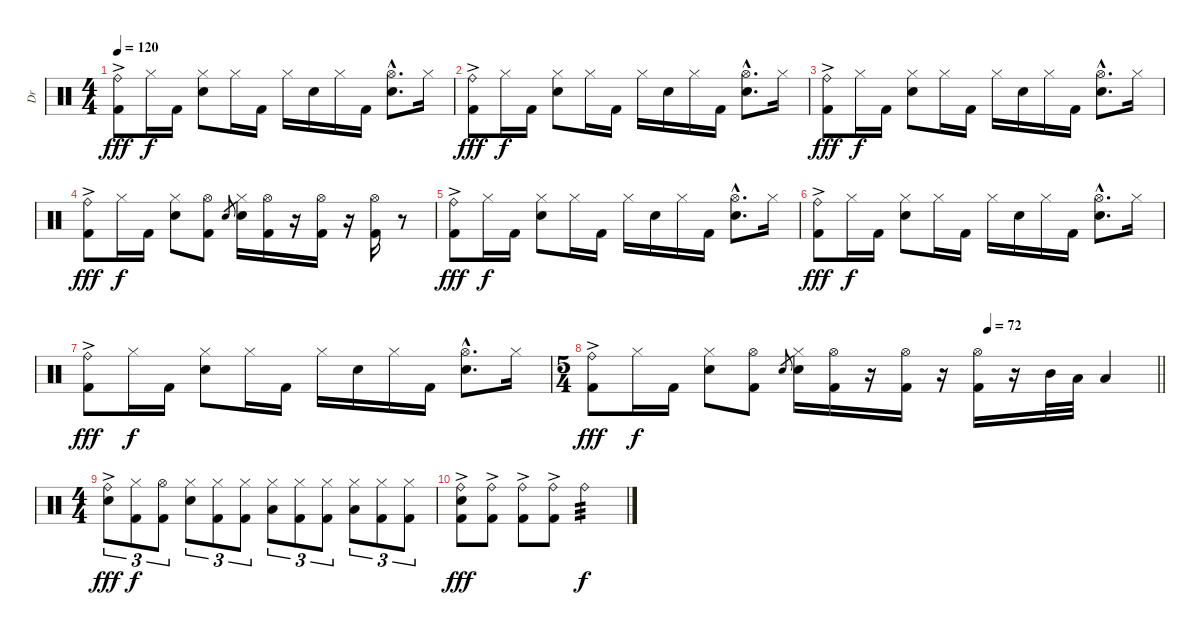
\track ("Dr" "Dr") {instrument percussion}
\staff {score}
\articulation defaults
\ts (4 4)
\tempo 120
\clef neutral
\ks c
("Ride (bell)"{ac} "Kick (hit) 2"{ac}).8{dy fff} "Hi-Hat (closed)".16{dy f} "Kick (hit) 2".16 ("Hi-Hat (closed)" "Electric Snare (hit)").8 "Hi-Hat (closed)".16 "Kick (hit) 2".16 "Hi-Hat (closed)".16 "Electric Snare (hit)".16 "Hi-Hat (closed)".16 "Kick (hit) 2".16 ("Hi-Hat (open)"{hac} "Electric Snare (hit)"{hac}).8{d} "Hi-Hat (closed)".16 |
("Ride (bell)"{ac} "Kick (hit) 2"{ac}).8{dy fff} "Hi-Hat (closed)".16{dy f} "Kick (hit) 2".16 ("Hi-Hat (closed)" "Electric Snare (hit)").8 "Hi-Hat (closed)".16 "Kick (hit) 2".16 "Hi-Hat (closed)".16 "Electric Snare (hit)".16 "Hi-Hat (closed)".16 "Kick (hit) 2".16 ("Hi-Hat (open)"{hac} "Electric Snare (hit)"{hac}).8{d} "Hi-Hat (closed)".16 |
("Ride (bell)"{ac} "Kick (hit) 2"{ac}).8{dy fff} "Hi-Hat (closed)".16{dy f} "Kick (hit) 2".16 ("Hi-Hat (closed)" "Electric Snare (hit)").8 "Hi-Hat (closed)".16 "Kick (hit) 2".16 "Hi-Hat (closed)".16 "Electric Snare (hit)".16 "Hi-Hat (closed)".16 "Kick (hit) 2".16 ("Hi-Hat (open)"{hac} "Electric Snare (hit)"{hac}).8{d} "Hi-Hat (closed)".16 |
("Ride (bell)"{ac} "Kick (hit) 2"{ac}).8{dy fff} "Hi-Hat (closed)".16{dy f} "Kick (hit) 2".16 ("Hi-Hat (closed)" "Electric Snare (hit)").8 ("Hi-Hat (open)" "Kick (hit) 2").8 "Electric Snare (hit)".8{gr} ("Hi-Hat (closed)" "Electric Snare (hit)").16 ("Hi-Hat (open)" "Kick (hit) 2").16 r.16 ("Hi-Hat (open)" "Kick (hit) 2").16 r.16 ("Hi-Hat (open)" "Kick (hit) 2").16 r.8 |
("Ride (bell)"{ac} "Kick (hit) 2"{ac}).8{dy fff} "Hi-Hat (closed)".16{dy f} "Kick (hit) 2".16 ("Hi-Hat (closed)" "Electric Snare (hit)").8 "Hi-Hat (closed)".16 "Kick (hit) 2".16 "Hi-Hat (closed)".16 "Electric Snare (hit)".16 "Hi-Hat (closed)".16 "Kick (hit) 2".16 ("Hi-Hat (open)"{hac} "Electric Snare (hit)"{hac}).8{d} "Hi-Hat (closed)".16 |
("Ride (bell)"{ac} "Kick (hit) 2"{ac}).8{dy fff} "Hi-Hat (closed)".16{dy f} "Kick (hit) 2".16 ("Hi-Hat (closed)" "Electric Snare (hit)").8 "Hi-Hat (closed)".16 "Kick (hit) 2".16 "Hi-Hat (closed)".16 "Electric Snare (hit)".16 "Hi-Hat (closed)".16 "Kick (hit) 2".16 ("Hi-Hat (open)"{hac} "Electric Snare (hit)"{hac}).8{d} "Hi-Hat (closed)".16 |
("Ride (bell)"{ac} "Kick (hit) 2"{ac}).8{dy fff} "Hi-Hat (closed)".16{dy f} "Kick (hit) 2".16 ("Hi-Hat (closed)" "Electric Snare (hit)").8 "Hi-Hat (closed)".16 "Kick (hit) 2".16 "Hi-Hat (closed)".16 "Electric Snare (hit)".16 "Hi-Hat (closed)".16 "Kick (hit) 2".16 ("Hi-Hat (open)"{hac} "Electric Snare (hit)"{hac}).8{d} "Hi-Hat (closed)".16 |
\ts (5 4)
\tempo (72 0.7)
\barLineRight lightlight
("Ride (bell)"{ac} "Kick (hit) 2"{ac}).8{dy fff} "Hi-Hat (closed)".16{dy f} "Kick (hit) 2".16 ("Hi-Hat (closed)" "Electric Snare (hit)").8 ("Hi-Hat (open)" "Kick (hit) 2").8 "Electric Snare (hit)".8{gr} ("Hi-Hat (closed)" "Electric Snare (hit)").16 ("Hi-Hat (open)" "Kick (hit) 2").16 r.16 ("Hi-Hat (open)" "Kick (hit) 2").16 r.16 ("Hi-Hat (open)" "Kick (hit) 2").16 r.16 "Mid Tom (hit)".32 "Low Tom (hit)".32 "Low Floor Tom (hit)".4 |
\ts (4 4)
("Ride (bell)"{ac} "Electric Snare (hit)"{ac}).8{tu (3 2) dy fff} ("Hi-Hat (closed)" "Kick (hit) 2").8{tu (3 2) dy f} ("Hi-Hat (open)" "Kick (hit) 2").8{tu (3 2)} ("Hi-Hat (closed)" "Electric Snare (hit)").8{tu (3 2)} ("Hi-Hat (closed)" "Kick (hit) 2").8{tu (3 2)} ("Hi-Hat (closed)" "Kick (hit) 2").8{tu (3 2)} ("Hi-Hat (closed)" "Low Tom (hit)").8{tu (3 2)} ("Hi-Hat (closed)" "Kick (hit) 2").8{tu (3 2)} ("Hi-Hat (closed)" "Kick (hit) 2").8{tu (3 2)} ("Hi-Hat (closed)" "Low Floor Tom (hit)").8{tu (3 2)} ("Hi-Hat (closed)" "Kick (hit) 2").8{tu (3 2)} ("Hi-Hat (closed)" "Kick (hit) 2").8{tu (3 2)} |
("Ride (bell)"{ac} "Electric Snare (hit)"{ac} "Kick (hit) 2"{ac}).8{dy fff} ("Ride (bell)"{ac} "Kick (hit) 2"{ac}).8 ("Ride (bell)"{ac} "Kick (hit) 2"{ac}).8 ("Ride (bell)"{ac} "Kick (hit) 2"{ac}).8 "Ride (bell)".2{tp 3 dy f volume 8}
